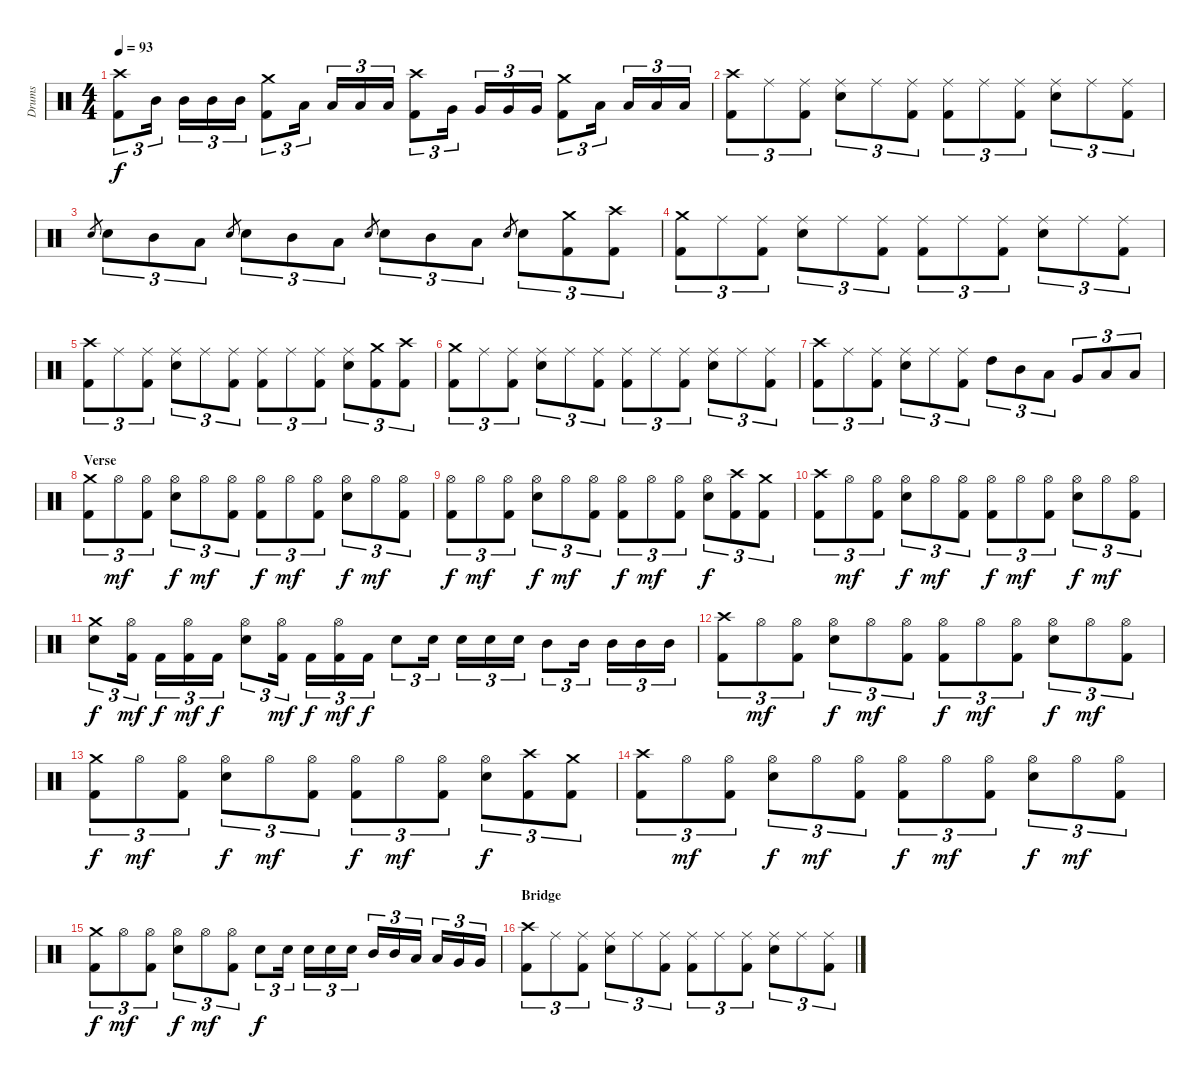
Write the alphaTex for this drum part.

\track ("Drums" "Drums") {instrument percussion}
\staff {score}
\articulation defaults
\ts (4 4)
\tempo 93
\clef neutral
\ks c
("Crash high (hit)" "Kick (hit) 2").8{tu (3 2) dy f} "Mid Tom (hit)".16{tu (3 2)} "Mid Tom (hit)".16{tu (3 2)} "Mid Tom (hit)".16{tu (3 2)} "Mid Tom (hit)".16{tu (3 2)} ("Crash medium (hit)" "Kick (hit) 2").8{tu (3 2)} "Low Tom (hit)".16{tu (3 2)} "Low Tom (hit)".16{tu (3 2)} "Low Tom (hit)".16{tu (3 2)} "Low Tom (hit)".16{tu (3 2)} ("Crash high (hit)" "Kick (hit) 2").8{tu (3 2)} "Very Low Tom (hit)".16{tu (3 2)} "Very Low Tom (hit)".16{tu (3 2)} "Very Low Tom (hit)".16{tu (3 2)} "Very Low Tom (hit)".16{tu (3 2)} ("Crash medium (hit)" "Kick (hit) 2").8{tu (3 2)} "Low Floor Tom (hit)".16{tu (3 2)} "Low Floor Tom (hit)".16{tu (3 2)} "Low Floor Tom (hit)".16{tu (3 2)} "Low Floor Tom (hit)".16{tu (3 2)} |
("Crash high (hit)" "Kick (hit) 2").8{tu (3 2)} "Ride (middle)".8{tu (3 2)} ("Ride (middle)" "Kick (hit) 2").8{tu (3 2)} ("Ride (middle)" "Snare (hit) 2").8{tu (3 2)} "Ride (middle)".8{tu (3 2)} ("Ride (middle)" "Kick (hit) 2").8{tu (3 2)} ("Ride (middle)" "Kick (hit) 2").8{tu (3 2)} "Ride (middle)".8{tu (3 2)} ("Ride (middle)" "Kick (hit) 2").8{tu (3 2)} ("Ride (middle)" "Snare (hit) 2").8{tu (3 2)} "Ride (middle)".8{tu (3 2)} ("Ride (middle)" "Kick (hit) 2").8{tu (3 2)} |
"Snare (hit) 2".8{gr} "Snare (hit) 2".8{tu (3 2)} "Mid Tom (hit)".8{tu (3 2)} "Low Tom (hit)".8{tu (3 2)} "Snare (hit) 2".8{gr} "Snare (hit) 2".8{tu (3 2)} "Mid Tom (hit)".8{tu (3 2)} "Low Tom (hit)".8{tu (3 2)} "Snare (hit) 2".8{gr} "Snare (hit) 2".8{tu (3 2)} "Mid Tom (hit)".8{tu (3 2)} "Low Tom (hit)".8{tu (3 2)} "Snare (hit) 2".8{gr} "Snare (hit) 2".8{tu (3 2)} ("Crash medium (hit)" "Kick (hit) 2").8{tu (3 2)} ("Crash high (hit)" "Kick (hit) 2").8{tu (3 2)} |
("Crash medium (hit)" "Kick (hit) 2").8{tu (3 2)} "Ride (middle)".8{tu (3 2)} ("Ride (middle)" "Kick (hit) 2").8{tu (3 2)} ("Ride (middle)" "Snare (hit) 2").8{tu (3 2)} "Ride (middle)".8{tu (3 2)} ("Ride (middle)" "Kick (hit) 2").8{tu (3 2)} ("Ride (middle)" "Kick (hit) 2").8{tu (3 2)} "Ride (middle)".8{tu (3 2)} ("Ride (middle)" "Kick (hit) 2").8{tu (3 2)} ("Ride (middle)" "Snare (hit) 2").8{tu (3 2)} "Ride (middle)".8{tu (3 2)} ("Ride (middle)" "Kick (hit) 2").8{tu (3 2)} |
("Crash high (hit)" "Kick (hit) 2").8{tu (3 2)} "Ride (middle)".8{tu (3 2)} ("Ride (middle)" "Kick (hit) 2").8{tu (3 2)} ("Ride (middle)" "Snare (hit) 2").8{tu (3 2)} "Ride (middle)".8{tu (3 2)} ("Ride (middle)" "Kick (hit) 2").8{tu (3 2)} ("Ride (middle)" "Kick (hit) 2").8{tu (3 2)} "Ride (middle)".8{tu (3 2)} ("Ride (middle)" "Kick (hit) 2").8{tu (3 2)} ("Ride (middle)" "Snare (hit) 2").8{tu (3 2)} ("Crash medium (hit)" "Kick (hit) 2").8{tu (3 2)} ("Crash high (hit)" "Kick (hit) 2").8{tu (3 2)} |
("Crash medium (hit)" "Kick (hit) 2").8{tu (3 2)} "Ride (middle)".8{tu (3 2)} ("Ride (middle)" "Kick (hit) 2").8{tu (3 2)} ("Ride (middle)" "Snare (hit) 2").8{tu (3 2)} "Ride (middle)".8{tu (3 2)} ("Ride (middle)" "Kick (hit) 2").8{tu (3 2)} ("Ride (middle)" "Kick (hit) 2").8{tu (3 2)} "Ride (middle)".8{tu (3 2)} ("Ride (middle)" "Kick (hit) 2").8{tu (3 2)} ("Ride (middle)" "Snare (hit) 2").8{tu (3 2)} "Ride (middle)".8{tu (3 2)} ("Ride (middle)" "Kick (hit) 2").8{tu (3 2)} |
("Crash high (hit)" "Kick (hit) 2").8{tu (3 2)} "Ride (middle)".8{tu (3 2)} ("Ride (middle)" "Kick (hit) 2").8{tu (3 2)} ("Ride (middle)" "Snare (hit) 2").8{tu (3 2)} "Ride (middle)".8{tu (3 2)} ("Ride (middle)" "Kick (hit) 2").8{tu (3 2)} "High Tom (hit)".8{tu (3 2)} "Mid Tom (hit)".8{tu (3 2)} "Low Tom (hit)".8{tu (3 2)} "Very Low Tom (hit)".8{tu (3 2)} "Low Floor Tom (hit)".8{tu (3 2)} "Low Floor Tom (hit)".8{tu (3 2)} |
\section ("" "Verse")
("Crash medium (hit)" "Kick (hit) 2").8{tu (3 2)} "Hi-Hat (open)".8{tu (3 2) dy mf} ("Hi-Hat (open)" "Kick (hit) 2").8{tu (3 2)} ("Hi-Hat (open)" "Snare (hit) 2").8{tu (3 2) dy f} "Hi-Hat (open)".8{tu (3 2) dy mf} ("Hi-Hat (open)" "Kick (hit) 2").8{tu (3 2)} ("Hi-Hat (open)" "Kick (hit) 2").8{tu (3 2) dy f} "Hi-Hat (open)".8{tu (3 2) dy mf} ("Hi-Hat (open)" "Kick (hit) 2").8{tu (3 2)} ("Hi-Hat (open)" "Snare (hit) 2").8{tu (3 2) dy f} "Hi-Hat (open)".8{tu (3 2) dy mf} ("Hi-Hat (open)" "Kick (hit) 2").8{tu (3 2)} |
("Hi-Hat (open)" "Kick (hit) 2").8{tu (3 2) dy f} "Hi-Hat (open)".8{tu (3 2) dy mf} ("Hi-Hat (open)" "Kick (hit) 2").8{tu (3 2)} ("Hi-Hat (open)" "Snare (hit) 2").8{tu (3 2) dy f} "Hi-Hat (open)".8{tu (3 2) dy mf} ("Hi-Hat (open)" "Kick (hit) 2").8{tu (3 2)} ("Hi-Hat (open)" "Kick (hit) 2").8{tu (3 2) dy f} "Hi-Hat (open)".8{tu (3 2) dy mf} ("Hi-Hat (open)" "Kick (hit) 2").8{tu (3 2)} ("Hi-Hat (open)" "Snare (hit) 2").8{tu (3 2) dy f} ("Crash high (hit)" "Kick (hit) 2").8{tu (3 2)} ("Crash medium (hit)" "Kick (hit) 2").8{tu (3 2)} |
("Crash high (hit)" "Kick (hit) 2").8{tu (3 2)} "Hi-Hat (open)".8{tu (3 2) dy mf} ("Hi-Hat (open)" "Kick (hit) 2").8{tu (3 2)} ("Hi-Hat (open)" "Snare (hit) 2").8{tu (3 2) dy f} "Hi-Hat (open)".8{tu (3 2) dy mf} ("Hi-Hat (open)" "Kick (hit) 2").8{tu (3 2)} ("Hi-Hat (open)" "Kick (hit) 2").8{tu (3 2) dy f} "Hi-Hat (open)".8{tu (3 2) dy mf} ("Hi-Hat (open)" "Kick (hit) 2").8{tu (3 2)} ("Hi-Hat (open)" "Snare (hit) 2").8{tu (3 2) dy f} "Hi-Hat (open)".8{tu (3 2) dy mf} ("Hi-Hat (open)" "Kick (hit) 2").8{tu (3 2)} |
("Crash medium (hit)" "Snare (hit) 2").8{tu (3 2) dy f} ("Hi-Hat (open)" "Kick (hit) 2").16{tu (3 2) dy mf} "Kick (hit) 2".16{tu (3 2) dy f} ("Hi-Hat (open)" "Kick (hit) 2").16{tu (3 2) dy mf} "Kick (hit) 2".16{tu (3 2) dy f} ("Hi-Hat (open)" "Snare (hit) 2").8{tu (3 2)} ("Hi-Hat (open)" "Kick (hit) 2").16{tu (3 2) dy mf} "Kick (hit) 2".16{tu (3 2) dy f} ("Hi-Hat (open)" "Kick (hit) 2").16{tu (3 2) dy mf} "Kick (hit) 2".16{tu (3 2) dy f} "Snare (hit) 2".8{tu (3 2)} "Snare (hit) 2".16{tu (3 2)} "Snare (hit) 2".16{tu (3 2)} "Snare (hit) 2".16{tu (3 2)} "Snare (hit) 2".16{tu (3 2)} "Mid Tom (hit)".8{tu (3 2)} "Mid Tom (hit)".16{tu (3 2)} "Mid Tom (hit)".16{tu (3 2)} "Mid Tom (hit)".16{tu (3 2)} "Mid Tom (hit)".16{tu (3 2)} |
("Crash high (hit)" "Kick (hit) 2").8{tu (3 2)} "Hi-Hat (open)".8{tu (3 2) dy mf} ("Hi-Hat (open)" "Kick (hit) 2").8{tu (3 2)} ("Hi-Hat (open)" "Snare (hit) 2").8{tu (3 2) dy f} "Hi-Hat (open)".8{tu (3 2) dy mf} ("Hi-Hat (open)" "Kick (hit) 2").8{tu (3 2)} ("Hi-Hat (open)" "Kick (hit) 2").8{tu (3 2) dy f} "Hi-Hat (open)".8{tu (3 2) dy mf} ("Hi-Hat (open)" "Kick (hit) 2").8{tu (3 2)} ("Hi-Hat (open)" "Snare (hit) 2").8{tu (3 2) dy f} "Hi-Hat (open)".8{tu (3 2) dy mf} ("Hi-Hat (open)" "Kick (hit) 2").8{tu (3 2)} |
("Crash medium (hit)" "Kick (hit) 2").8{tu (3 2) dy f} "Hi-Hat (open)".8{tu (3 2) dy mf} ("Hi-Hat (open)" "Kick (hit) 2").8{tu (3 2)} ("Hi-Hat (open)" "Snare (hit) 2").8{tu (3 2) dy f} "Hi-Hat (open)".8{tu (3 2) dy mf} ("Hi-Hat (open)" "Kick (hit) 2").8{tu (3 2)} ("Hi-Hat (open)" "Kick (hit) 2").8{tu (3 2) dy f} "Hi-Hat (open)".8{tu (3 2) dy mf} ("Hi-Hat (open)" "Kick (hit) 2").8{tu (3 2)} ("Hi-Hat (open)" "Snare (hit) 2").8{tu (3 2) dy f} ("Crash high (hit)" "Kick (hit) 2").8{tu (3 2)} ("Crash medium (hit)" "Kick (hit) 2").8{tu (3 2)} |
("Crash high (hit)" "Kick (hit) 2").8{tu (3 2)} "Hi-Hat (open)".8{tu (3 2) dy mf} ("Hi-Hat (open)" "Kick (hit) 2").8{tu (3 2)} ("Hi-Hat (open)" "Snare (hit) 2").8{tu (3 2) dy f} "Hi-Hat (open)".8{tu (3 2) dy mf} ("Hi-Hat (open)" "Kick (hit) 2").8{tu (3 2)} ("Hi-Hat (open)" "Kick (hit) 2").8{tu (3 2) dy f} "Hi-Hat (open)".8{tu (3 2) dy mf} ("Hi-Hat (open)" "Kick (hit) 2").8{tu (3 2)} ("Hi-Hat (open)" "Snare (hit) 2").8{tu (3 2) dy f} "Hi-Hat (open)".8{tu (3 2) dy mf} ("Hi-Hat (open)" "Kick (hit) 2").8{tu (3 2)} |
("Crash medium (hit)" "Kick (hit) 2").8{tu (3 2) dy f} "Hi-Hat (open)".8{tu (3 2) dy mf} ("Hi-Hat (open)" "Kick (hit) 2").8{tu (3 2)} ("Hi-Hat (open)" "Snare (hit) 2").8{tu (3 2) dy f} "Hi-Hat (open)".8{tu (3 2) dy mf} ("Hi-Hat (open)" "Kick (hit) 2").8{tu (3 2)} "Snare (hit) 2".8{tu (3 2) dy f} "Snare (hit) 2".16{tu (3 2)} "Snare (hit) 2".16{tu (3 2)} "Snare (hit) 2".16{tu (3 2)} "Snare (hit) 2".16{tu (3 2)} "Mid Tom (hit)".16{tu (3 2)} "Mid Tom (hit)".16{tu (3 2)} "Low Tom (hit)".16{tu (3 2)} "Low Tom (hit)".16{tu (3 2)} "Very Low Tom (hit)".16{tu (3 2)} "Very Low Tom (hit)".16{tu (3 2)} |
\section ("" "Bridge")
("Crash high (hit)" "Kick (hit) 2").8{tu (3 2)} "Ride (middle)".8{tu (3 2)} ("Ride (middle)" "Kick (hit) 2").8{tu (3 2)} ("Ride (middle)" "Snare (hit) 2").8{tu (3 2)} "Ride (middle)".8{tu (3 2)} ("Ride (middle)" "Kick (hit) 2").8{tu (3 2)} ("Ride (middle)" "Kick (hit) 2").8{tu (3 2)} "Ride (middle)".8{tu (3 2)} ("Ride (middle)" "Kick (hit) 2").8{tu (3 2)} ("Ride (middle)" "Snare (hit) 2").8{tu (3 2)} "Ride (middle)".8{tu (3 2)} ("Ride (middle)" "Kick (hit) 2").8{tu (3 2)}
